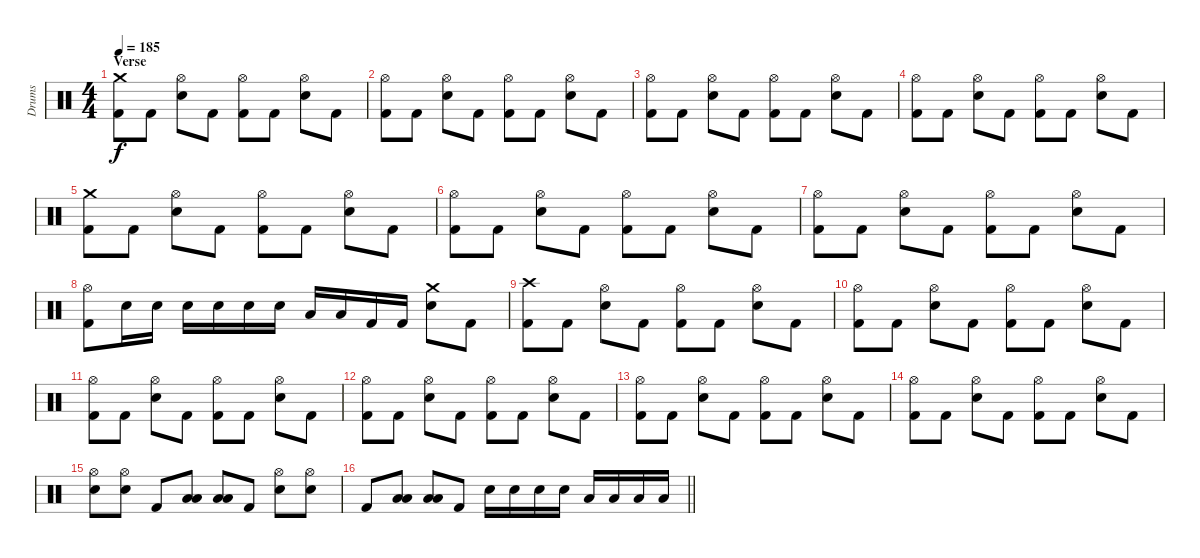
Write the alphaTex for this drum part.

\track ("Drums" "Drums") {instrument percussion}
\staff {score}
\articulation defaults
\ts (4 4)
\section ("" "Verse")
\tempo 185
\clef neutral
\ks c
("Crash medium (hit)" "Kick (hit) 2").8{dy f} "Kick (hit) 2".8 ("Hi-Hat (open)" "Electric Snare (hit)").8 "Kick (hit) 2".8 ("Hi-Hat (open)" "Kick (hit) 2").8 "Kick (hit) 2".8 ("Hi-Hat (open)" "Electric Snare (hit)").8 "Kick (hit) 2".8 |
("Hi-Hat (open)" "Kick (hit) 2").8 "Kick (hit) 2".8 ("Hi-Hat (open)" "Electric Snare (hit)").8 "Kick (hit) 2".8 ("Hi-Hat (open)" "Kick (hit) 2").8 "Kick (hit) 2".8 ("Hi-Hat (open)" "Electric Snare (hit)").8 "Kick (hit) 2".8 |
("Hi-Hat (open)" "Kick (hit) 2").8 "Kick (hit) 2".8 ("Hi-Hat (open)" "Electric Snare (hit)").8 "Kick (hit) 2".8 ("Hi-Hat (open)" "Kick (hit) 2").8 "Kick (hit) 2".8 ("Hi-Hat (open)" "Electric Snare (hit)").8 "Kick (hit) 2".8 |
("Hi-Hat (open)" "Kick (hit) 2").8 "Kick (hit) 2".8 ("Hi-Hat (open)" "Electric Snare (hit)").8 "Kick (hit) 2".8 ("Hi-Hat (open)" "Kick (hit) 2").8 "Kick (hit) 2".8 ("Hi-Hat (open)" "Electric Snare (hit)").8 "Kick (hit) 2".8 |
("Crash medium (hit)" "Kick (hit) 2").8 "Kick (hit) 2".8 ("Hi-Hat (open)" "Electric Snare (hit)").8 "Kick (hit) 2".8 ("Hi-Hat (open)" "Kick (hit) 2").8 "Kick (hit) 2".8 ("Hi-Hat (open)" "Electric Snare (hit)").8 "Kick (hit) 2".8 |
("Hi-Hat (open)" "Kick (hit) 2").8 "Kick (hit) 2".8 ("Hi-Hat (open)" "Electric Snare (hit)").8 "Kick (hit) 2".8 ("Hi-Hat (open)" "Kick (hit) 2").8 "Kick (hit) 2".8 ("Hi-Hat (open)" "Electric Snare (hit)").8 "Kick (hit) 2".8 |
("Hi-Hat (open)" "Kick (hit) 2").8 "Kick (hit) 2".8 ("Hi-Hat (open)" "Electric Snare (hit)").8 "Kick (hit) 2".8 ("Hi-Hat (open)" "Kick (hit) 2").8 "Kick (hit) 2".8 ("Hi-Hat (open)" "Electric Snare (hit)").8 "Kick (hit) 2".8 |
("Hi-Hat (open)" "Kick (hit) 2").8 "Electric Snare (hit)".16 "Electric Snare (hit)".16 "Electric Snare (hit)".16 "Electric Snare (hit)".16 "Electric Snare (hit)".16 "Electric Snare (hit)".16 "Low Tom (hit)".16 "Low Tom (hit)".16 "Kick (hit) 2".16 "Kick (hit) 2".16 ("Crash medium (hit)" "Electric Snare (hit)").8 "Kick (hit) 2".8 |
("Crash high (hit)" "Kick (hit) 2").8 "Kick (hit) 2".8 ("Hi-Hat (open)" "Electric Snare (hit)").8 "Kick (hit) 2".8 ("Hi-Hat (open)" "Kick (hit) 2").8 "Kick (hit) 2".8 ("Hi-Hat (open)" "Electric Snare (hit)").8 "Kick (hit) 2".8 |
("Hi-Hat (open)" "Kick (hit) 2").8 "Kick (hit) 2".8 ("Hi-Hat (open)" "Electric Snare (hit)").8 "Kick (hit) 2".8 ("Hi-Hat (open)" "Kick (hit) 2").8 "Kick (hit) 2".8 ("Hi-Hat (open)" "Electric Snare (hit)").8 "Kick (hit) 2".8 |
("Hi-Hat (open)" "Kick (hit) 2").8 "Kick (hit) 2".8 ("Hi-Hat (open)" "Electric Snare (hit)").8 "Kick (hit) 2".8 ("Hi-Hat (open)" "Kick (hit) 2").8 "Kick (hit) 2".8 ("Hi-Hat (open)" "Electric Snare (hit)").8 "Kick (hit) 2".8 |
("Hi-Hat (open)" "Kick (hit) 2").8 "Kick (hit) 2".8 ("Hi-Hat (open)" "Electric Snare (hit)").8 "Kick (hit) 2".8 ("Hi-Hat (open)" "Kick (hit) 2").8 "Kick (hit) 2".8 ("Hi-Hat (open)" "Electric Snare (hit)").8 "Kick (hit) 2".8 |
("Hi-Hat (open)" "Kick (hit) 2").8 "Kick (hit) 2".8 ("Hi-Hat (open)" "Electric Snare (hit)").8 "Kick (hit) 2".8 ("Hi-Hat (open)" "Kick (hit) 2").8 "Kick (hit) 2".8 ("Hi-Hat (open)" "Electric Snare (hit)").8 "Kick (hit) 2".8 |
("Hi-Hat (open)" "Kick (hit) 2").8 "Kick (hit) 2".8 ("Hi-Hat (open)" "Electric Snare (hit)").8 "Kick (hit) 2".8 ("Hi-Hat (open)" "Kick (hit) 2").8 "Kick (hit) 2".8 ("Hi-Hat (open)" "Electric Snare (hit)").8 "Kick (hit) 2".8 |
("Hi-Hat (open)" "Electric Snare (hit)").8 ("Hi-Hat (open)" "Electric Snare (hit)").8 "Kick (hit) 2".8 ("Low Tom (hit)" "Low Floor Tom (hit)").8 ("Low Tom (hit)" "Low Floor Tom (hit)").8 "Kick (hit) 2".8 ("Hi-Hat (open)" "Electric Snare (hit)").8 ("Hi-Hat (open)" "Electric Snare (hit)").8 |
\barLineRight lightlight "Kick (hit) 2".8
("Low Tom (hit)" "Low Floor Tom (hit)").8 ("Low Tom (hit)" "Low Floor Tom (hit)").8 "Kick (hit) 2".8 "Electric Snare (hit)".16 "Electric Snare (hit)".16 "Electric Snare (hit)".16 "Electric Snare (hit)".16 "Low Tom (hit)".16 "Low Tom (hit)".16 "Low Floor Tom (hit)".16 "Low Floor Tom (hit)".16
